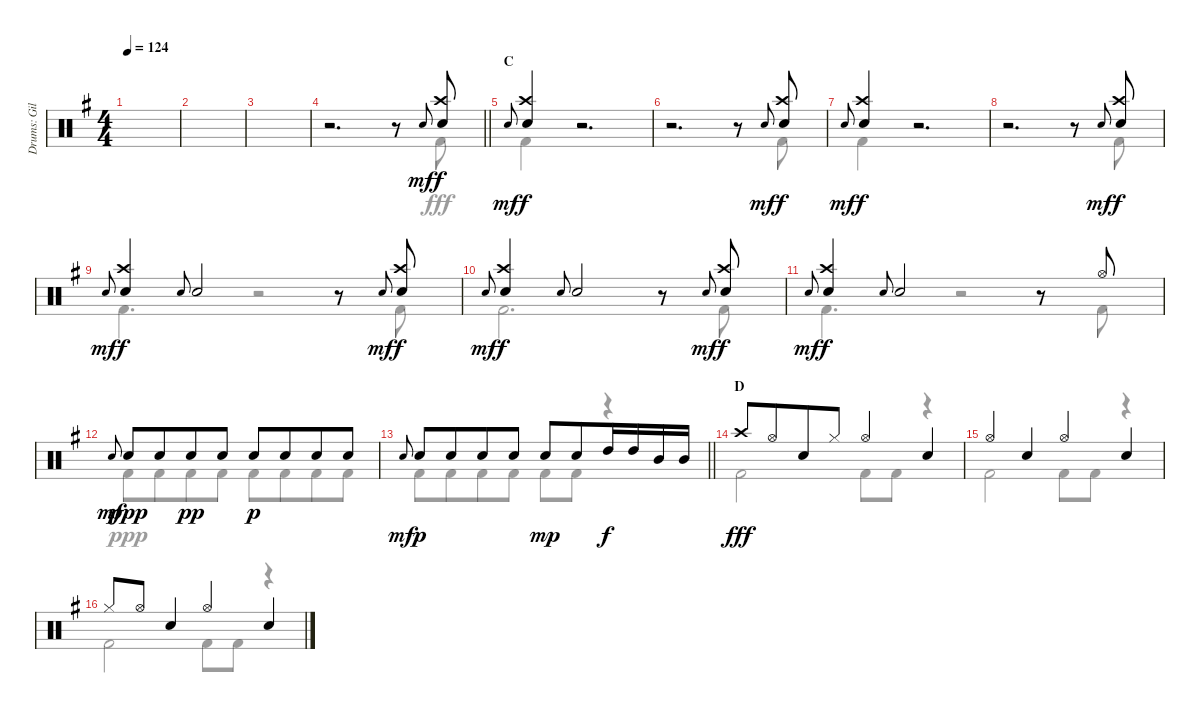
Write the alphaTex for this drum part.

\track ("Drums: Gil" "Drums: Gil") {instrument percussion}
\staff {score}
\articulation defaults
\voice
\ts (4 4)
\tempo 124
\clef neutral
\ks g
|
|
|
\barLineRight lightlight
r.2{d} r.8 "Electric Snare (hit)".8{gr onbeat dy mf} ("Crash high (hit)" "Snare (hit) 2").8{dy f} |
\section ("" "C")
"Electric Snare (hit)".8{gr onbeat dy mf} ("Crash high (hit)" "Snare (hit) 2").4{dy f} r.2{d} |
r.2{d} r.8 "Electric Snare (hit)".8{gr onbeat dy mf} ("Crash high (hit)" "Snare (hit) 2").8{dy f} |
"Electric Snare (hit)".8{gr onbeat dy mf} ("Crash high (hit)" "Snare (hit) 2").4{dy f} r.2{d} |
r.2{d} r.8 "Electric Snare (hit)".8{gr onbeat dy mf} ("Crash high (hit)" "Snare (hit) 2").8{dy f} |
"Electric Snare (hit)".8{gr onbeat dy mf} ("Crash high (hit)" "Snare (hit) 2").4{dy f} "Electric Snare (hit)".8{gr onbeat} "Snare (hit) 2".2 r.8 "Electric Snare (hit)".8{gr onbeat dy mf} ("Crash high (hit)" "Snare (hit) 2").8{dy f} |
"Electric Snare (hit)".8{gr onbeat dy mf} ("Crash high (hit)" "Snare (hit) 2").4{dy f} "Electric Snare (hit)".8{gr onbeat} "Snare (hit) 2".2 r.8 "Electric Snare (hit)".8{gr onbeat dy mf} ("Crash high (hit)" "Snare (hit) 2").8{dy f} |
"Electric Snare (hit)".8{gr onbeat dy mf} ("Crash high (hit)" "Snare (hit) 2").4{dy f} "Electric Snare (hit)".8{gr onbeat} "Snare (hit) 2".2 r.8 "Hi-Hat (open)".8 |
"Electric Snare (hit)".8{gr onbeat dy mf} "Snare (hit) 2".8{dy ppp beam merge} "Snare (hit) 2".8{beam merge} "Snare (hit) 2".8{dy pp} "Snare (hit) 2".8 "Snare (hit) 2".8{dy p beam merge} "Snare (hit) 2".8{beam merge} "Snare (hit) 2".8 "Snare (hit) 2".8 |
\barLineRight lightlight "Electric Snare (hit)".8{gr onbeat dy mf} "Snare (hit) 2".8{dy p} "Snare (hit) 2".8{beam merge} "Snare (hit) 2".8 "Snare (hit) 2".8 "Snare (hit) 2".8{dy mp} "Snare (hit) 2".8{beam merge} "High Tom (hit)".16{dy f} "High Tom (hit)".16 "Mid Tom (hit)".16 "Mid Tom (hit)".16
|
\section ("" "D")
"Crash high (hit)".8{dy fff} "Hi-Hat (open)".8{beam merge} "Snare (hit) 2".8 "Hi-Hat (closed)".8 "Hi-Hat (open)".4 "Snare (hit) 2".4 |
"Hi-Hat (open)".4 "Snare (hit) 2".4 "Hi-Hat (open)".4 "Snare (hit) 2".4 |
"Hi-Hat (closed)".8 "Hi-Hat (open)".8 "Snare (hit) 2".4 "Hi-Hat (open)".4 "Snare (hit) 2".4
\voice
\clef neutral
\ottava regular
\simile none
\ks g
|
|
|
\barLineRight lightlight
r.2{d} r.8 "Kick (hit) 2".8 |
"Kick (hit) 2".4 r.2{d} |
r.2{d} r.8 "Kick (hit) 2".8 |
"Kick (hit) 2".4 r.2{d} |
r.2{d} r.8 "Kick (hit) 2".8 |
"Kick (hit) 2".4{d} r.2 "Kick (hit) 2".8 |
"Kick (hit) 2".2{d} r.8 "Kick (hit) 2".8 |
"Kick (hit) 2".4{d} r.2 "Kick (hit) 2".8 |
"Kick (hit) 2".8{dy ppp beam merge} "Kick (hit) 2".8{beam merge} "Kick (hit) 2".8{dy pp beam merge} "Kick (hit) 2".8 "Kick (hit) 2".8{dy p beam merge} "Kick (hit) 2".8{beam merge} "Kick (hit) 2".8{beam merge} "Kick (hit) 2".8 |
\barLineRight lightlight "Kick (hit) 2".8{beam merge} "Kick (hit) 2".8{beam merge} "Kick (hit) 2".8{beam merge} "Kick (hit) 2".8 "Kick (hit) 2".8{dy mp beam merge} "Kick (hit) 2".8{beam merge}
r.4 |
"Kick (hit) 2".2{dy fff} "Kick (hit) 2".8 "Kick (hit) 2".8 r.4 |
"Kick (hit) 2".2 "Kick (hit) 2".8 "Kick (hit) 2".8 r.4 |
"Kick (hit) 2".2 "Kick (hit) 2".8 "Kick (hit) 2".8 r.4
